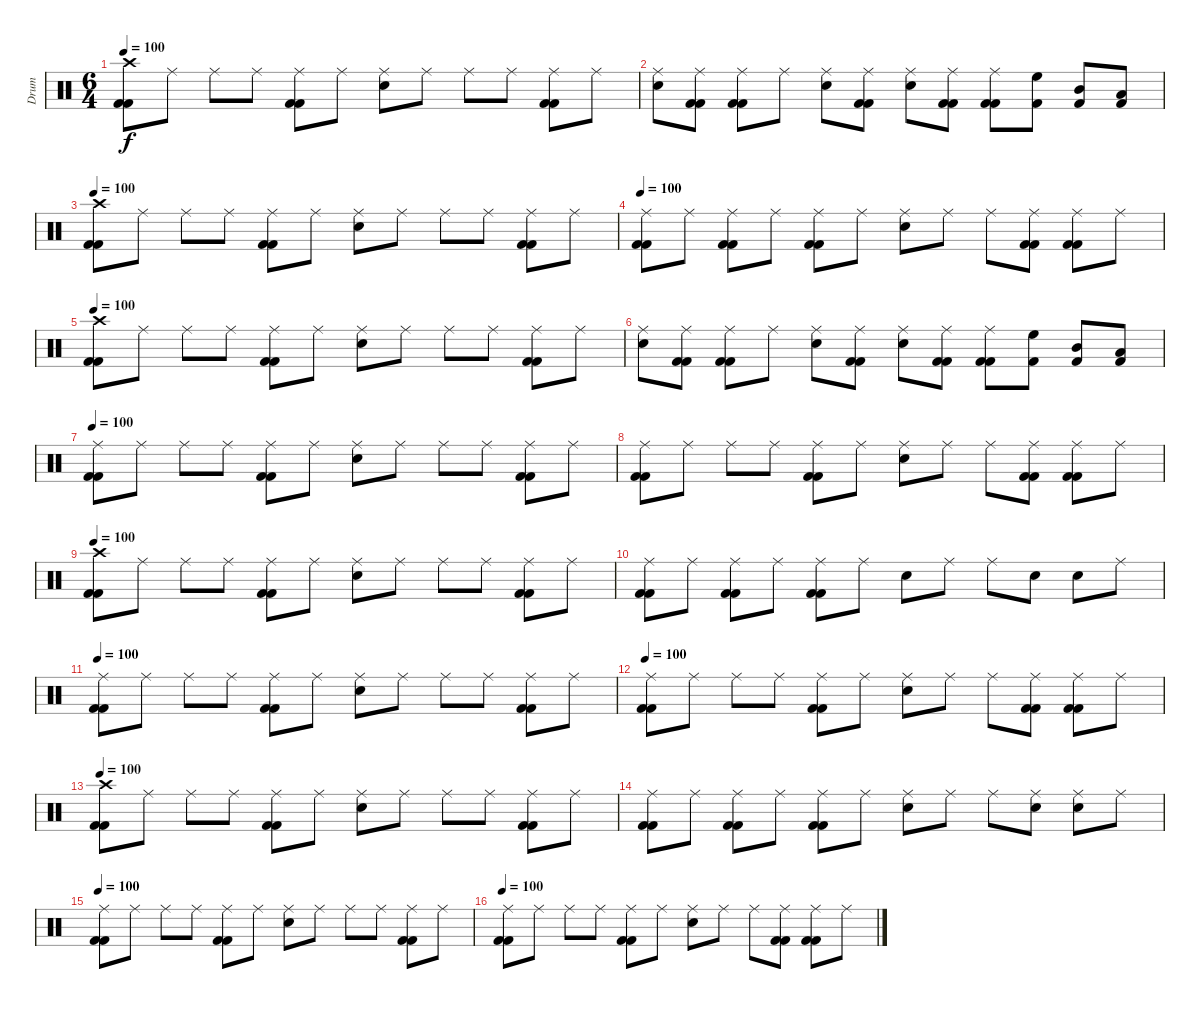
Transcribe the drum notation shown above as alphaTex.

\track ("Drum" "Drum") {instrument percussion}
\staff {score}
\articulation defaults
\ts (6 4)
\tempo 100
\clef neutral
\ks c
("Crash high (hit)" "Kick (hit) 2" "Kick (hit) 2").8{dy f} "Ride (middle)".8 "Ride (middle)".8 "Ride (middle)".8 ("Ride (middle)" "Kick (hit) 2" "Kick (hit) 2").8 "Ride (middle)".8 ("Ride (middle)" "Electric Snare (hit)").8 "Ride (middle)".8 "Ride (middle)".8 "Ride (middle)".8 ("Ride (middle)" "Kick (hit) 2" "Kick (hit) 2").8 "Ride (middle)".8 |
("Ride (middle)" "Electric Snare (hit)").8 ("Ride (middle)" "Kick (hit) 2" "Kick (hit) 2").8 ("Ride (middle)" "Kick (hit) 2" "Kick (hit) 2").8 "Ride (middle)".8 ("Ride (middle)" "Electric Snare (hit)").8 ("Ride (middle)" "Kick (hit) 2" "Kick (hit) 2").8 ("Ride (middle)" "Electric Snare (hit)").8 ("Ride (middle)" "Kick (hit) 2" "Kick (hit) 2").8 ("Ride (middle)" "Kick (hit) 2" "Kick (hit) 2").8 ("Kick (hit) 2" "High Floor Tom (hit)").8 ("Kick (hit) 2" "Mid Tom (hit)").8 ("Kick (hit) 2" "Low Tom (hit)").8 |
\tempo 100
("Crash high (hit)" "Kick (hit) 2" "Kick (hit) 2").8 "Ride (middle)".8 "Ride (middle)".8 "Ride (middle)".8 ("Ride (middle)" "Kick (hit) 2" "Kick (hit) 2").8 "Ride (middle)".8 ("Ride (middle)" "Electric Snare (hit)").8 "Ride (middle)".8 "Ride (middle)".8 "Ride (middle)".8 ("Ride (middle)" "Kick (hit) 2" "Kick (hit) 2").8 "Ride (middle)".8 |
\tempo 100
("Ride (middle)" "Kick (hit) 2" "Kick (hit) 2").8 "Ride (middle)".8 ("Ride (middle)" "Kick (hit) 2" "Kick (hit) 2").8 "Ride (middle)".8 ("Ride (middle)" "Kick (hit) 2" "Kick (hit) 2").8 "Ride (middle)".8 ("Ride (middle)" "Electric Snare (hit)").8 "Ride (middle)".8 "Ride (middle)".8 ("Ride (middle)" "Kick (hit) 2" "Kick (hit) 2").8 ("Ride (middle)" "Kick (hit) 2" "Kick (hit) 2").8 "Ride (middle)".8 |
\tempo 100
("Crash high (hit)" "Kick (hit) 2" "Kick (hit) 2").8 "Ride (middle)".8 "Ride (middle)".8 "Ride (middle)".8 ("Ride (middle)" "Kick (hit) 2" "Kick (hit) 2").8 "Ride (middle)".8 ("Ride (middle)" "Electric Snare (hit)").8 "Ride (middle)".8 "Ride (middle)".8 "Ride (middle)".8 ("Ride (middle)" "Kick (hit) 2" "Kick (hit) 2").8 "Ride (middle)".8 |
("Ride (middle)" "Electric Snare (hit)").8 ("Ride (middle)" "Kick (hit) 2" "Kick (hit) 2").8 ("Ride (middle)" "Kick (hit) 2" "Kick (hit) 2").8 "Ride (middle)".8 ("Ride (middle)" "Electric Snare (hit)").8 ("Ride (middle)" "Kick (hit) 2" "Kick (hit) 2").8 ("Ride (middle)" "Electric Snare (hit)").8 ("Ride (middle)" "Kick (hit) 2" "Kick (hit) 2").8 ("Ride (middle)" "Kick (hit) 2" "Kick (hit) 2").8 ("Kick (hit) 2" "High Floor Tom (hit)").8 ("Kick (hit) 2" "Mid Tom (hit)").8 ("Kick (hit) 2" "Low Tom (hit)").8 |
\tempo 100
("Ride (middle)" "Kick (hit) 2" "Kick (hit) 2").8 "Ride (middle)".8 "Ride (middle)".8 "Ride (middle)".8 ("Ride (middle)" "Kick (hit) 2" "Kick (hit) 2").8 "Ride (middle)".8 ("Ride (middle)" "Electric Snare (hit)").8 "Ride (middle)".8 "Ride (middle)".8 "Ride (middle)".8 ("Ride (middle)" "Kick (hit) 2" "Kick (hit) 2").8 "Ride (middle)".8 |
("Ride (middle)" "Kick (hit) 2" "Kick (hit) 2").8 "Ride (middle)".8 "Ride (middle)".8 "Ride (middle)".8 ("Ride (middle)" "Kick (hit) 2" "Kick (hit) 2").8 "Ride (middle)".8 ("Ride (middle)" "Electric Snare (hit)").8 "Ride (middle)".8 "Ride (middle)".8 ("Ride (middle)" "Kick (hit) 2" "Kick (hit) 2").8 ("Ride (middle)" "Kick (hit) 2" "Kick (hit) 2").8 "Ride (middle)".8 |
\tempo 100
("Crash high (hit)" "Kick (hit) 2" "Kick (hit) 2").8 "Ride (middle)".8 "Ride (middle)".8 "Ride (middle)".8 ("Ride (middle)" "Kick (hit) 2" "Kick (hit) 2").8 "Ride (middle)".8 ("Ride (middle)" "Electric Snare (hit)").8 "Ride (middle)".8 "Ride (middle)".8 "Ride (middle)".8 ("Ride (middle)" "Kick (hit) 2" "Kick (hit) 2").8 "Ride (middle)".8 |
("Ride (middle)" "Kick (hit) 2" "Kick (hit) 2").8 "Ride (middle)".8 ("Ride (middle)" "Kick (hit) 2" "Kick (hit) 2").8 "Ride (middle)".8 ("Ride (middle)" "Kick (hit) 2" "Kick (hit) 2").8 "Ride (middle)".8 "Electric Snare (hit)".8 "Ride (middle)".8 "Ride (middle)".8 "Electric Snare (hit)".8 "Electric Snare (hit)".8 "Ride (middle)".8 |
\tempo 100
("Ride (middle)" "Kick (hit) 2" "Kick (hit) 2").8 "Ride (middle)".8 "Ride (middle)".8 "Ride (middle)".8 ("Ride (middle)" "Kick (hit) 2" "Kick (hit) 2").8 "Ride (middle)".8 ("Ride (middle)" "Electric Snare (hit)").8 "Ride (middle)".8 "Ride (middle)".8 "Ride (middle)".8 ("Ride (middle)" "Kick (hit) 2" "Kick (hit) 2").8 "Ride (middle)".8 |
\tempo 100
("Ride (middle)" "Kick (hit) 2" "Kick (hit) 2").8 "Ride (middle)".8 "Ride (middle)".8 "Ride (middle)".8 ("Ride (middle)" "Kick (hit) 2" "Kick (hit) 2").8 "Ride (middle)".8 ("Ride (middle)" "Electric Snare (hit)").8 "Ride (middle)".8 "Ride (middle)".8 ("Ride (middle)" "Kick (hit) 2" "Kick (hit) 2").8 ("Ride (middle)" "Kick (hit) 2" "Kick (hit) 2").8 "Ride (middle)".8 |
\tempo 100
("Crash high (hit)" "Kick (hit) 2" "Kick (hit) 2").8 "Ride (middle)".8 "Ride (middle)".8 "Ride (middle)".8 ("Ride (middle)" "Kick (hit) 2" "Kick (hit) 2").8 "Ride (middle)".8 ("Ride (middle)" "Electric Snare (hit)").8 "Ride (middle)".8 "Ride (middle)".8 "Ride (middle)".8 ("Ride (middle)" "Kick (hit) 2" "Kick (hit) 2").8 "Ride (middle)".8 |
("Ride (middle)" "Kick (hit) 2" "Kick (hit) 2").8 "Ride (middle)".8 ("Ride (middle)" "Kick (hit) 2" "Kick (hit) 2").8 "Ride (middle)".8 ("Ride (middle)" "Kick (hit) 2" "Kick (hit) 2").8 "Ride (middle)".8 ("Ride (middle)" "Electric Snare (hit)").8 "Ride (middle)".8 "Ride (middle)".8 ("Ride (middle)" "Electric Snare (hit)").8 ("Ride (middle)" "Electric Snare (hit)").8 "Ride (middle)".8 |
\tempo 100
("Ride (middle)" "Kick (hit) 2" "Kick (hit) 2").8 "Ride (middle)".8 "Ride (middle)".8 "Ride (middle)".8 ("Ride (middle)" "Kick (hit) 2" "Kick (hit) 2").8 "Ride (middle)".8 ("Ride (middle)" "Electric Snare (hit)").8 "Ride (middle)".8 "Ride (middle)".8 "Ride (middle)".8 ("Ride (middle)" "Kick (hit) 2" "Kick (hit) 2").8 "Ride (middle)".8 |
\tempo 100
("Ride (middle)" "Kick (hit) 2" "Kick (hit) 2").8 "Ride (middle)".8 "Ride (middle)".8 "Ride (middle)".8 ("Ride (middle)" "Kick (hit) 2" "Kick (hit) 2").8 "Ride (middle)".8 ("Ride (middle)" "Electric Snare (hit)").8 "Ride (middle)".8 "Ride (middle)".8 ("Ride (middle)" "Kick (hit) 2" "Kick (hit) 2").8 ("Ride (middle)" "Kick (hit) 2" "Kick (hit) 2").8 "Ride (middle)".8
